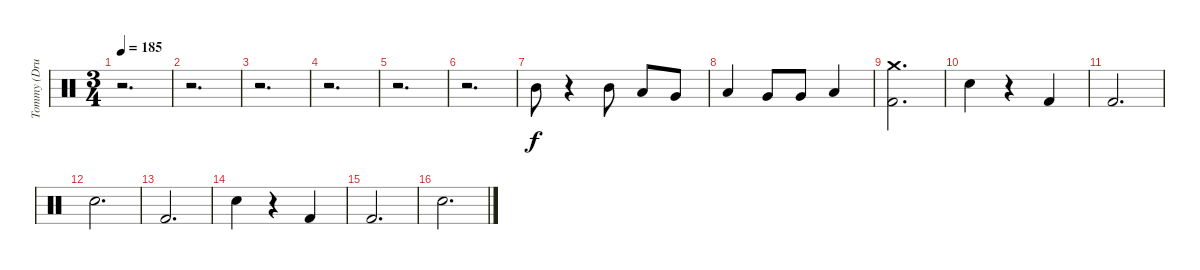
\track ("Tommy (Drums)" "Tommy (Dru") {instrument percussion}
\staff {score}
\articulation defaults
\ts (3 4)
\tempo 185
\clef neutral
\ks c
r.2{d dy f} |
r.2{d} |
r.2{d} |
r.2{d} |
r.2{d} |
r.2{d} |
"Mid Tom (hit)".8 r.4 "Mid Tom (hit)".8 "Low Tom (hit)".8 "Very Low Tom (hit)".8 |
"Low Tom (hit)".4 "Very Low Tom (hit)".8 "Very Low Tom (hit)".8 "Low Floor Tom (hit)".4 |
("Crash medium (hit)" "Kick (hit) 2").2{d} |
"Electric Snare (hit)".4 r.4 "Kick (hit) 2".4 |
"Kick (hit) 2".2{d} |
"Electric Snare (hit)".2{d} |
"Kick (hit) 2".2{d} |
"Electric Snare (hit)".4 r.4 "Kick (hit) 2".4 |
"Kick (hit) 2".2{d} |
"Electric Snare (hit)".2{d}
